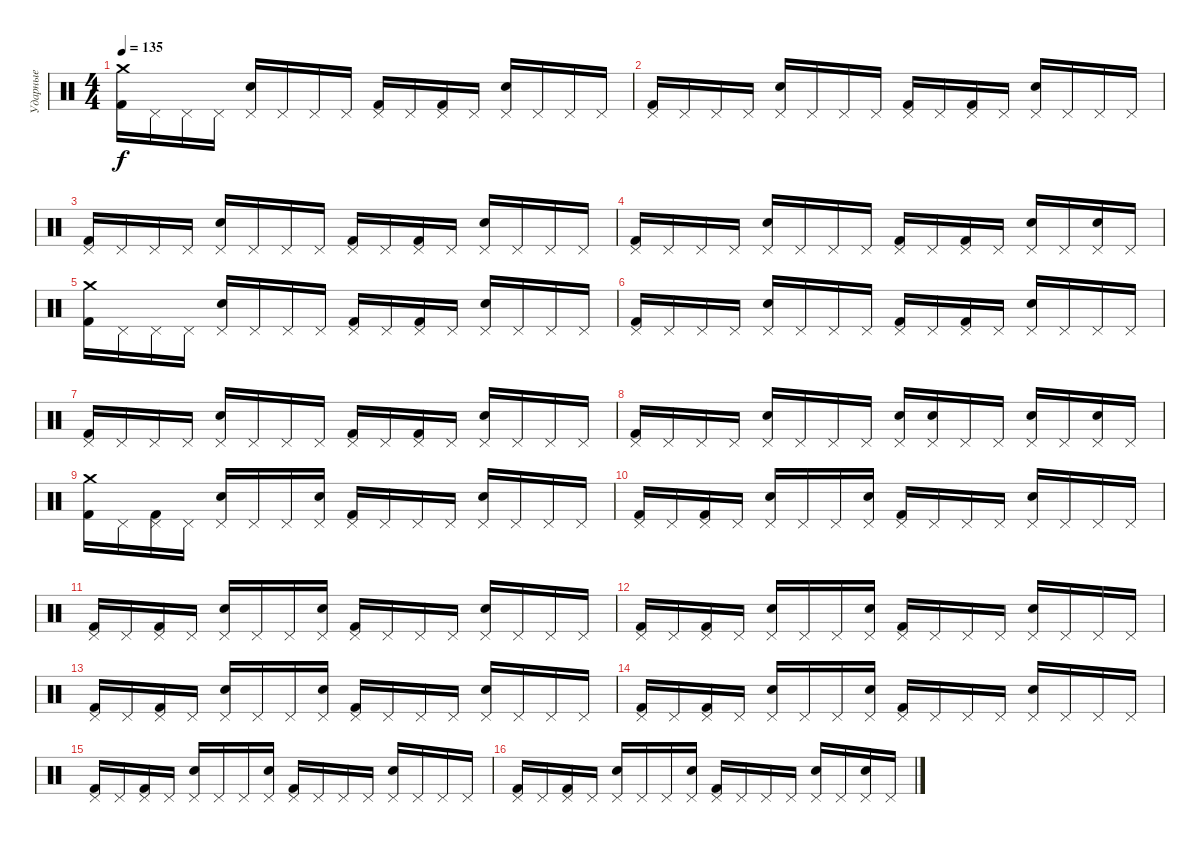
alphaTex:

\track ("Ударные" "Ударные") {instrument percussion}
\staff {score}
\articulation defaults
\ts (4 4)
\tempo 135
\clef neutral
\ks c
("Crash medium (hit)" "Kick (hit) 2").16{dy f} "Pedal Hi-Hat (hit)".16 "Pedal Hi-Hat (hit)".16 "Pedal Hi-Hat (hit)".16 ("Pedal Hi-Hat (hit)" "Snare (hit) 2").16 "Pedal Hi-Hat (hit)".16 "Pedal Hi-Hat (hit)".16 "Pedal Hi-Hat (hit)".16 ("Pedal Hi-Hat (hit)" "Kick (hit) 2").16 "Pedal Hi-Hat (hit)".16 ("Pedal Hi-Hat (hit)" "Kick (hit) 2").16 "Pedal Hi-Hat (hit)".16 ("Pedal Hi-Hat (hit)" "Snare (hit) 2").16 "Pedal Hi-Hat (hit)".16 "Pedal Hi-Hat (hit)".16 "Pedal Hi-Hat (hit)".16 |
("Pedal Hi-Hat (hit)" "Kick (hit) 2").16 "Pedal Hi-Hat (hit)".16 "Pedal Hi-Hat (hit)".16 "Pedal Hi-Hat (hit)".16 ("Pedal Hi-Hat (hit)" "Snare (hit) 2").16 "Pedal Hi-Hat (hit)".16 "Pedal Hi-Hat (hit)".16 "Pedal Hi-Hat (hit)".16 ("Pedal Hi-Hat (hit)" "Kick (hit) 2").16 "Pedal Hi-Hat (hit)".16 ("Pedal Hi-Hat (hit)" "Kick (hit) 2").16 "Pedal Hi-Hat (hit)".16 ("Pedal Hi-Hat (hit)" "Snare (hit) 2").16 "Pedal Hi-Hat (hit)".16 "Pedal Hi-Hat (hit)".16 "Pedal Hi-Hat (hit)".16 |
("Pedal Hi-Hat (hit)" "Kick (hit) 2").16 "Pedal Hi-Hat (hit)".16 "Pedal Hi-Hat (hit)".16 "Pedal Hi-Hat (hit)".16 ("Pedal Hi-Hat (hit)" "Snare (hit) 2").16 "Pedal Hi-Hat (hit)".16 "Pedal Hi-Hat (hit)".16 "Pedal Hi-Hat (hit)".16 ("Pedal Hi-Hat (hit)" "Kick (hit) 2").16 "Pedal Hi-Hat (hit)".16 ("Pedal Hi-Hat (hit)" "Kick (hit) 2").16 "Pedal Hi-Hat (hit)".16 ("Pedal Hi-Hat (hit)" "Snare (hit) 2").16 "Pedal Hi-Hat (hit)".16 "Pedal Hi-Hat (hit)".16 "Pedal Hi-Hat (hit)".16 |
("Pedal Hi-Hat (hit)" "Kick (hit) 2").16 "Pedal Hi-Hat (hit)".16 "Pedal Hi-Hat (hit)".16 "Pedal Hi-Hat (hit)".16 ("Pedal Hi-Hat (hit)" "Snare (hit) 2").16 "Pedal Hi-Hat (hit)".16 "Pedal Hi-Hat (hit)".16 "Pedal Hi-Hat (hit)".16 ("Pedal Hi-Hat (hit)" "Kick (hit) 2").16 "Pedal Hi-Hat (hit)".16 ("Pedal Hi-Hat (hit)" "Kick (hit) 2").16 "Pedal Hi-Hat (hit)".16 ("Pedal Hi-Hat (hit)" "Snare (hit) 2").16 "Pedal Hi-Hat (hit)".16 ("Pedal Hi-Hat (hit)" "Snare (hit) 2").16 "Pedal Hi-Hat (hit)".16 |
("Crash medium (hit)" "Kick (hit) 2").16 "Pedal Hi-Hat (hit)".16 "Pedal Hi-Hat (hit)".16 "Pedal Hi-Hat (hit)".16 ("Pedal Hi-Hat (hit)" "Snare (hit) 2").16 "Pedal Hi-Hat (hit)".16 "Pedal Hi-Hat (hit)".16 "Pedal Hi-Hat (hit)".16 ("Pedal Hi-Hat (hit)" "Kick (hit) 2").16 "Pedal Hi-Hat (hit)".16 ("Pedal Hi-Hat (hit)" "Kick (hit) 2").16 "Pedal Hi-Hat (hit)".16 ("Pedal Hi-Hat (hit)" "Snare (hit) 2").16 "Pedal Hi-Hat (hit)".16 "Pedal Hi-Hat (hit)".16 "Pedal Hi-Hat (hit)".16 |
("Pedal Hi-Hat (hit)" "Kick (hit) 2").16 "Pedal Hi-Hat (hit)".16 "Pedal Hi-Hat (hit)".16 "Pedal Hi-Hat (hit)".16 ("Pedal Hi-Hat (hit)" "Snare (hit) 2").16 "Pedal Hi-Hat (hit)".16 "Pedal Hi-Hat (hit)".16 "Pedal Hi-Hat (hit)".16 ("Pedal Hi-Hat (hit)" "Kick (hit) 2").16 "Pedal Hi-Hat (hit)".16 ("Pedal Hi-Hat (hit)" "Kick (hit) 2").16 "Pedal Hi-Hat (hit)".16 ("Pedal Hi-Hat (hit)" "Snare (hit) 2").16 "Pedal Hi-Hat (hit)".16 "Pedal Hi-Hat (hit)".16 "Pedal Hi-Hat (hit)".16 |
("Pedal Hi-Hat (hit)" "Kick (hit) 2").16 "Pedal Hi-Hat (hit)".16 "Pedal Hi-Hat (hit)".16 "Pedal Hi-Hat (hit)".16 ("Pedal Hi-Hat (hit)" "Snare (hit) 2").16 "Pedal Hi-Hat (hit)".16 "Pedal Hi-Hat (hit)".16 "Pedal Hi-Hat (hit)".16 ("Pedal Hi-Hat (hit)" "Kick (hit) 2").16 "Pedal Hi-Hat (hit)".16 ("Pedal Hi-Hat (hit)" "Kick (hit) 2").16 "Pedal Hi-Hat (hit)".16 ("Pedal Hi-Hat (hit)" "Snare (hit) 2").16 "Pedal Hi-Hat (hit)".16 "Pedal Hi-Hat (hit)".16 "Pedal Hi-Hat (hit)".16 |
("Pedal Hi-Hat (hit)" "Kick (hit) 2").16 "Pedal Hi-Hat (hit)".16 "Pedal Hi-Hat (hit)".16 "Pedal Hi-Hat (hit)".16 ("Pedal Hi-Hat (hit)" "Snare (hit) 2").16 "Pedal Hi-Hat (hit)".16 "Pedal Hi-Hat (hit)".16 "Pedal Hi-Hat (hit)".16 ("Pedal Hi-Hat (hit)" "Snare (hit) 2").16 ("Pedal Hi-Hat (hit)" "Snare (hit) 2").16 "Pedal Hi-Hat (hit)".16 "Pedal Hi-Hat (hit)".16 ("Pedal Hi-Hat (hit)" "Snare (hit) 2").16 "Pedal Hi-Hat (hit)".16 ("Pedal Hi-Hat (hit)" "Snare (hit) 2").16 "Pedal Hi-Hat (hit)".16 |
("Crash medium (hit)" "Kick (hit) 2").16 "Pedal Hi-Hat (hit)".16 ("Pedal Hi-Hat (hit)" "Kick (hit) 2").16 "Pedal Hi-Hat (hit)".16 ("Pedal Hi-Hat (hit)" "Snare (hit) 2").16 "Pedal Hi-Hat (hit)".16 "Pedal Hi-Hat (hit)".16 ("Pedal Hi-Hat (hit)" "Snare (hit) 2").16 ("Pedal Hi-Hat (hit)" "Kick (hit) 2").16 "Pedal Hi-Hat (hit)".16 "Pedal Hi-Hat (hit)".16 "Pedal Hi-Hat (hit)".16 ("Pedal Hi-Hat (hit)" "Snare (hit) 2").16 "Pedal Hi-Hat (hit)".16 "Pedal Hi-Hat (hit)".16 "Pedal Hi-Hat (hit)".16 |
("Pedal Hi-Hat (hit)" "Kick (hit) 2").16 "Pedal Hi-Hat (hit)".16 ("Pedal Hi-Hat (hit)" "Kick (hit) 2").16 "Pedal Hi-Hat (hit)".16 ("Pedal Hi-Hat (hit)" "Snare (hit) 2").16 "Pedal Hi-Hat (hit)".16 "Pedal Hi-Hat (hit)".16 ("Pedal Hi-Hat (hit)" "Snare (hit) 2").16 ("Pedal Hi-Hat (hit)" "Kick (hit) 2").16 "Pedal Hi-Hat (hit)".16 "Pedal Hi-Hat (hit)".16 "Pedal Hi-Hat (hit)".16 ("Pedal Hi-Hat (hit)" "Snare (hit) 2").16 "Pedal Hi-Hat (hit)".16 "Pedal Hi-Hat (hit)".16 "Pedal Hi-Hat (hit)".16 |
("Pedal Hi-Hat (hit)" "Kick (hit) 2").16 "Pedal Hi-Hat (hit)".16 ("Pedal Hi-Hat (hit)" "Kick (hit) 2").16 "Pedal Hi-Hat (hit)".16 ("Pedal Hi-Hat (hit)" "Snare (hit) 2").16 "Pedal Hi-Hat (hit)".16 "Pedal Hi-Hat (hit)".16 ("Pedal Hi-Hat (hit)" "Snare (hit) 2").16 ("Pedal Hi-Hat (hit)" "Kick (hit) 2").16 "Pedal Hi-Hat (hit)".16 "Pedal Hi-Hat (hit)".16 "Pedal Hi-Hat (hit)".16 ("Pedal Hi-Hat (hit)" "Snare (hit) 2").16 "Pedal Hi-Hat (hit)".16 "Pedal Hi-Hat (hit)".16 "Pedal Hi-Hat (hit)".16 |
("Pedal Hi-Hat (hit)" "Kick (hit) 2").16 "Pedal Hi-Hat (hit)".16 ("Pedal Hi-Hat (hit)" "Kick (hit) 2").16 "Pedal Hi-Hat (hit)".16 ("Pedal Hi-Hat (hit)" "Snare (hit) 2").16 "Pedal Hi-Hat (hit)".16 "Pedal Hi-Hat (hit)".16 ("Pedal Hi-Hat (hit)" "Snare (hit) 2").16 ("Pedal Hi-Hat (hit)" "Kick (hit) 2").16 "Pedal Hi-Hat (hit)".16 "Pedal Hi-Hat (hit)".16 "Pedal Hi-Hat (hit)".16 ("Pedal Hi-Hat (hit)" "Snare (hit) 2").16 "Pedal Hi-Hat (hit)".16 "Pedal Hi-Hat (hit)".16 "Pedal Hi-Hat (hit)".16 |
("Pedal Hi-Hat (hit)" "Kick (hit) 2").16 "Pedal Hi-Hat (hit)".16 ("Pedal Hi-Hat (hit)" "Kick (hit) 2").16 "Pedal Hi-Hat (hit)".16 ("Pedal Hi-Hat (hit)" "Snare (hit) 2").16 "Pedal Hi-Hat (hit)".16 "Pedal Hi-Hat (hit)".16 ("Pedal Hi-Hat (hit)" "Snare (hit) 2").16 ("Pedal Hi-Hat (hit)" "Kick (hit) 2").16 "Pedal Hi-Hat (hit)".16 "Pedal Hi-Hat (hit)".16 "Pedal Hi-Hat (hit)".16 ("Pedal Hi-Hat (hit)" "Snare (hit) 2").16 "Pedal Hi-Hat (hit)".16 "Pedal Hi-Hat (hit)".16 "Pedal Hi-Hat (hit)".16 |
("Pedal Hi-Hat (hit)" "Kick (hit) 2").16 "Pedal Hi-Hat (hit)".16 ("Pedal Hi-Hat (hit)" "Kick (hit) 2").16 "Pedal Hi-Hat (hit)".16 ("Pedal Hi-Hat (hit)" "Snare (hit) 2").16 "Pedal Hi-Hat (hit)".16 "Pedal Hi-Hat (hit)".16 ("Pedal Hi-Hat (hit)" "Snare (hit) 2").16 ("Pedal Hi-Hat (hit)" "Kick (hit) 2").16 "Pedal Hi-Hat (hit)".16 "Pedal Hi-Hat (hit)".16 "Pedal Hi-Hat (hit)".16 ("Pedal Hi-Hat (hit)" "Snare (hit) 2").16 "Pedal Hi-Hat (hit)".16 "Pedal Hi-Hat (hit)".16 "Pedal Hi-Hat (hit)".16 |
("Pedal Hi-Hat (hit)" "Kick (hit) 2").16 "Pedal Hi-Hat (hit)".16 ("Pedal Hi-Hat (hit)" "Kick (hit) 2").16 "Pedal Hi-Hat (hit)".16 ("Pedal Hi-Hat (hit)" "Snare (hit) 2").16 "Pedal Hi-Hat (hit)".16 "Pedal Hi-Hat (hit)".16 ("Pedal Hi-Hat (hit)" "Snare (hit) 2").16 ("Pedal Hi-Hat (hit)" "Kick (hit) 2").16 "Pedal Hi-Hat (hit)".16 "Pedal Hi-Hat (hit)".16 "Pedal Hi-Hat (hit)".16 ("Pedal Hi-Hat (hit)" "Snare (hit) 2").16 "Pedal Hi-Hat (hit)".16 "Pedal Hi-Hat (hit)".16 "Pedal Hi-Hat (hit)".16 |
("Pedal Hi-Hat (hit)" "Kick (hit) 2").16 "Pedal Hi-Hat (hit)".16 ("Pedal Hi-Hat (hit)" "Kick (hit) 2").16 "Pedal Hi-Hat (hit)".16 ("Pedal Hi-Hat (hit)" "Snare (hit) 2").16 "Pedal Hi-Hat (hit)".16 "Pedal Hi-Hat (hit)".16 ("Pedal Hi-Hat (hit)" "Snare (hit) 2").16 ("Pedal Hi-Hat (hit)" "Kick (hit) 2").16 "Pedal Hi-Hat (hit)".16 "Pedal Hi-Hat (hit)".16 "Pedal Hi-Hat (hit)".16 ("Pedal Hi-Hat (hit)" "Snare (hit) 2").16 "Pedal Hi-Hat (hit)".16 ("Pedal Hi-Hat (hit)" "Snare (hit) 2").16 "Pedal Hi-Hat (hit)".16
